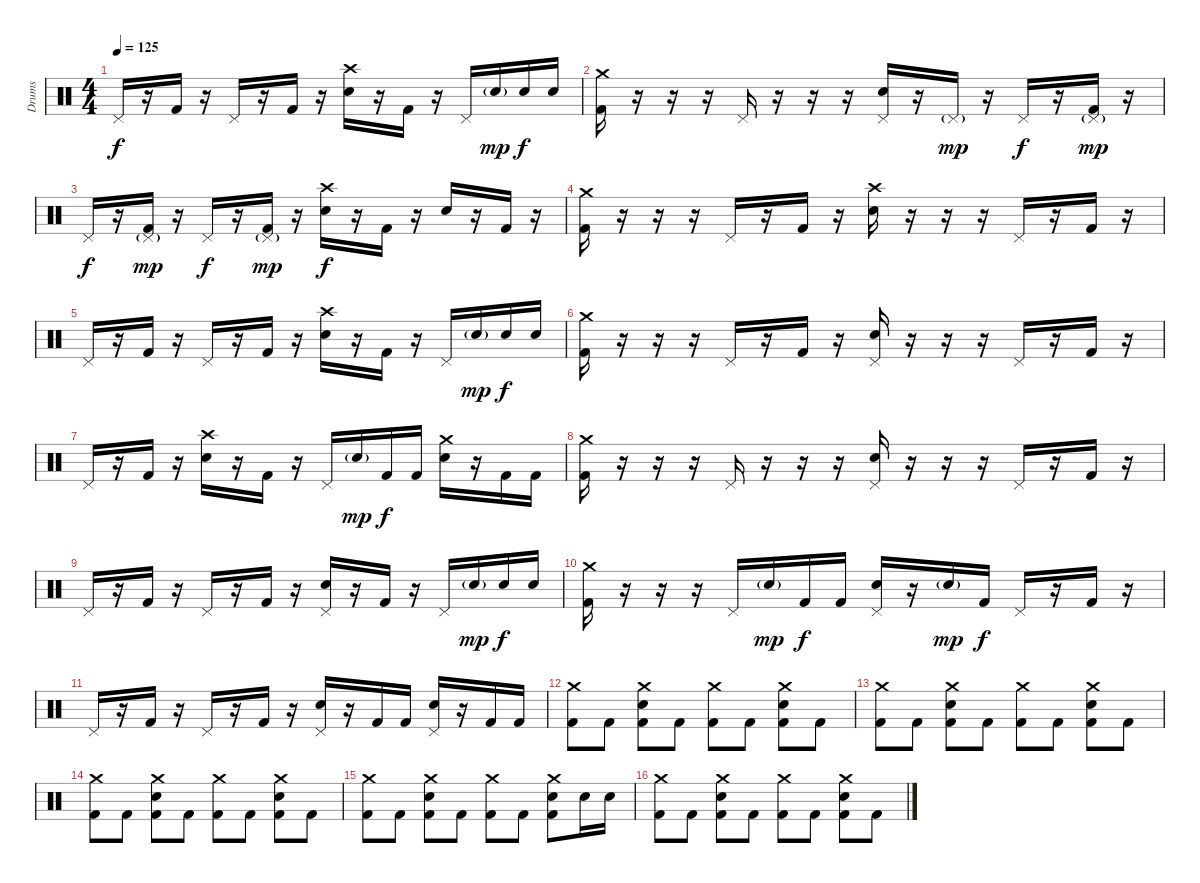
\track ("Drums" "Drums") {instrument percussion}
\staff {score}
\articulation defaults
\ts (4 4)
\tempo 125
\clef neutral
\ks c "Pedal Hi-Hat (hit)".16{dy f}
r.16 "Kick (hit) 2".16 r.16 "Pedal Hi-Hat (hit)".16 r.16 "Kick (hit) 2".16 r.16 ("Crash high (hit)" "Electric Snare (hit)").16 r.16 "Kick (hit) 2".16 r.16 "Pedal Hi-Hat (hit)".16 "Electric Snare (hit)"{g}.16{dy mp} "Electric Snare (hit)".16{dy f} "Electric Snare (hit)".16 |
("Crash medium (hit)" "Kick (hit) 2").16 r.16 r.16 r.16 "Pedal Hi-Hat (hit)".16 r.16 r.16 r.16 ("Pedal Hi-Hat (hit)" "Electric Snare (hit)").16 r.16 "Pedal Hi-Hat (hit)"{g}.16{dy mp} r.16 "Pedal Hi-Hat (hit)".16{dy f} r.16 ("Pedal Hi-Hat (hit)"{g} "Kick (hit) 2").16{dy mp} r.16 |
"Pedal Hi-Hat (hit)".16{dy f} r.16 ("Pedal Hi-Hat (hit)"{g} "Kick (hit) 2").16{dy mp} r.16 "Pedal Hi-Hat (hit)".16{dy f} r.16 ("Pedal Hi-Hat (hit)"{g} "Kick (hit) 2").16{dy mp} r.16 ("Crash high (hit)" "Electric Snare (hit)").16{dy f} r.16 "Kick (hit) 2".16 r.16 "Electric Snare (hit)".16 r.16 "Kick (hit) 2".16 r.16 |
("Crash medium (hit)" "Kick (hit) 2").16 r.16 r.16 r.16 "Pedal Hi-Hat (hit)".16 r.16 "Kick (hit) 2".16 r.16 ("Crash high (hit)" "Electric Snare (hit)").16 r.16 r.16 r.16 "Pedal Hi-Hat (hit)".16 r.16 "Kick (hit) 2".16 r.16 |
"Pedal Hi-Hat (hit)".16 r.16 "Kick (hit) 2".16 r.16 "Pedal Hi-Hat (hit)".16 r.16 "Kick (hit) 2".16 r.16 ("Crash high (hit)" "Electric Snare (hit)").16 r.16 "Kick (hit) 2".16 r.16 "Pedal Hi-Hat (hit)".16 "Electric Snare (hit)"{g}.16{dy mp} "Electric Snare (hit)".16{dy f} "Electric Snare (hit)".16 |
("Crash medium (hit)" "Kick (hit) 2").16 r.16 r.16 r.16 "Pedal Hi-Hat (hit)".16 r.16 "Kick (hit) 2".16 r.16 ("Pedal Hi-Hat (hit)" "Electric Snare (hit)").16 r.16 r.16 r.16 "Pedal Hi-Hat (hit)".16 r.16 "Kick (hit) 2".16 r.16 |
"Pedal Hi-Hat (hit)".16 r.16 "Kick (hit) 2".16 r.16 ("Crash high (hit)" "Electric Snare (hit)").16 r.16 "Kick (hit) 2".16 r.16 "Pedal Hi-Hat (hit)".16 "Electric Snare (hit)"{g}.16{dy mp} "Kick (hit) 2".16{dy f} "Kick (hit) 2".16 ("Crash medium (hit)" "Electric Snare (hit)").16 r.16 "Kick (hit) 2".16 "Kick (hit) 2".16 |
("Crash medium (hit)" "Kick (hit) 2").16 r.16 r.16 r.16 "Pedal Hi-Hat (hit)".16 r.16 r.16 r.16 ("Pedal Hi-Hat (hit)" "Electric Snare (hit)").16 r.16 r.16 r.16 "Pedal Hi-Hat (hit)".16 r.16 "Kick (hit) 2".16 r.16 |
"Pedal Hi-Hat (hit)".16 r.16 "Kick (hit) 2".16 r.16 "Pedal Hi-Hat (hit)".16 r.16 "Kick (hit) 2".16 r.16 ("Pedal Hi-Hat (hit)" "Electric Snare (hit)").16 r.16 "Kick (hit) 2".16 r.16 "Pedal Hi-Hat (hit)".16 "Electric Snare (hit)"{g}.16{dy mp} "Electric Snare (hit)".16{dy f} "Electric Snare (hit)".16 |
("Crash medium (hit)" "Kick (hit) 2").16 r.16 r.16 r.16 "Pedal Hi-Hat (hit)".16 "Electric Snare (hit)"{g}.16{dy mp} "Kick (hit) 2".16{dy f} "Kick (hit) 2".16 ("Pedal Hi-Hat (hit)" "Electric Snare (hit)").16 r.16 "Electric Snare (hit)"{g}.16{dy mp} "Kick (hit) 2".16{dy f} "Pedal Hi-Hat (hit)".16 r.16 "Kick (hit) 2".16 r.16 |
"Pedal Hi-Hat (hit)".16 r.16 "Kick (hit) 2".16 r.16 "Pedal Hi-Hat (hit)".16 r.16 "Kick (hit) 2".16 r.16 ("Pedal Hi-Hat (hit)" "Electric Snare (hit)").16 r.16 "Kick (hit) 2".16 "Kick (hit) 2".16 ("Pedal Hi-Hat (hit)" "Electric Snare (hit)").16 r.16 "Kick (hit) 2".16 "Kick (hit) 2".16 |
\section ("" "")
("Crash medium (hit)" "Kick (hit) 2").8 "Kick (hit) 2".8 ("Crash medium (hit)" "Electric Snare (hit)" "Kick (hit) 2").8 "Kick (hit) 2".8 ("Crash medium (hit)" "Kick (hit) 2").8 "Kick (hit) 2".8 ("Crash medium (hit)" "Electric Snare (hit)" "Kick (hit) 2").8 "Kick (hit) 2".8 |
("Crash medium (hit)" "Kick (hit) 2").8 "Kick (hit) 2".8 ("Crash medium (hit)" "Electric Snare (hit)" "Kick (hit) 2").8 "Kick (hit) 2".8 ("Crash medium (hit)" "Kick (hit) 2").8 "Kick (hit) 2".8 ("Crash medium (hit)" "Electric Snare (hit)" "Kick (hit) 2").8 "Kick (hit) 2".8 |
("Crash medium (hit)" "Kick (hit) 2").8 "Kick (hit) 2".8 ("Crash medium (hit)" "Electric Snare (hit)" "Kick (hit) 2").8 "Kick (hit) 2".8 ("Crash medium (hit)" "Kick (hit) 2").8 "Kick (hit) 2".8 ("Crash medium (hit)" "Electric Snare (hit)" "Kick (hit) 2").8 "Kick (hit) 2".8 |
("Crash medium (hit)" "Kick (hit) 2").8 "Kick (hit) 2".8 ("Crash medium (hit)" "Electric Snare (hit)" "Kick (hit) 2").8 "Kick (hit) 2".8 ("Crash medium (hit)" "Kick (hit) 2").8 "Kick (hit) 2".8 ("Crash medium (hit)" "Electric Snare (hit)" "Kick (hit) 2").8 "Electric Snare (hit)".16 "Electric Snare (hit)".16 |
("Crash medium (hit)" "Kick (hit) 2").8 "Kick (hit) 2".8 ("Crash medium (hit)" "Electric Snare (hit)" "Kick (hit) 2").8 "Kick (hit) 2".8 ("Crash medium (hit)" "Kick (hit) 2").8 "Kick (hit) 2".8 ("Crash medium (hit)" "Electric Snare (hit)" "Kick (hit) 2").8 "Kick (hit) 2".8
